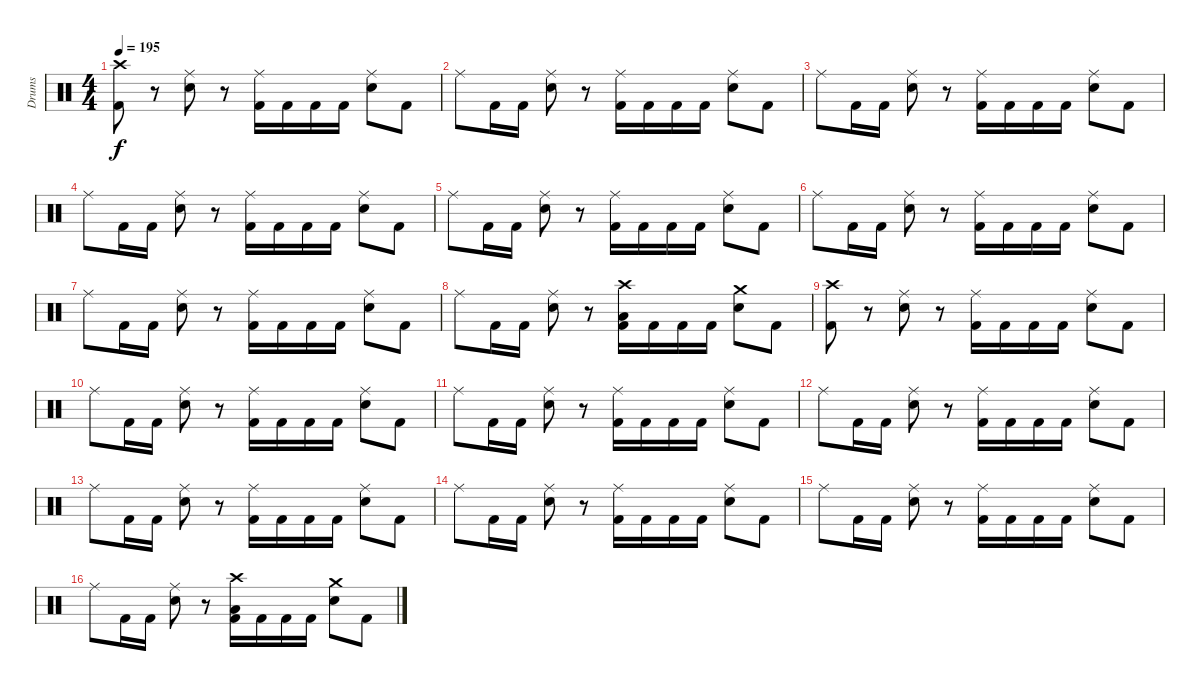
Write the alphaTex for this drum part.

\track ("Drums" "Drums") {instrument percussion}
\staff {score}
\articulation defaults
\ts (4 4)
\section ("" "")
\tempo 195
\clef neutral
\ks c
("Crash high (hit)" "Kick (hit) 2").8{dy f} r.8 ("Ride (middle)" "Snare (hit) 2").8 r.8 ("Ride (middle)" "Kick (hit) 2").16 "Kick (hit) 2".16 "Kick (hit) 2".16 "Kick (hit) 2".16 ("Ride (middle)" "Snare (hit) 2").8 "Kick (hit) 2".8 |
"Ride (middle)".8 "Kick (hit) 2".16 "Kick (hit) 2".16 ("Ride (middle)" "Snare (hit) 2").8 r.8 ("Ride (middle)" "Kick (hit) 2").16 "Kick (hit) 2".16 "Kick (hit) 2".16 "Kick (hit) 2".16 ("Ride (middle)" "Snare (hit) 2").8 "Kick (hit) 2".8 |
"Ride (middle)".8 "Kick (hit) 2".16 "Kick (hit) 2".16 ("Ride (middle)" "Snare (hit) 2").8 r.8 ("Ride (middle)" "Kick (hit) 2").16 "Kick (hit) 2".16 "Kick (hit) 2".16 "Kick (hit) 2".16 ("Ride (middle)" "Snare (hit) 2").8 "Kick (hit) 2".8 |
"Ride (middle)".8 "Kick (hit) 2".16 "Kick (hit) 2".16 ("Ride (middle)" "Snare (hit) 2").8 r.8 ("Ride (middle)" "Kick (hit) 2").16 "Kick (hit) 2".16 "Kick (hit) 2".16 "Kick (hit) 2".16 ("Ride (middle)" "Snare (hit) 2").8 "Kick (hit) 2".8 |
"Ride (middle)".8 "Kick (hit) 2".16 "Kick (hit) 2".16 ("Ride (middle)" "Snare (hit) 2").8 r.8 ("Ride (middle)" "Kick (hit) 2").16 "Kick (hit) 2".16 "Kick (hit) 2".16 "Kick (hit) 2".16 ("Ride (middle)" "Snare (hit) 2").8 "Kick (hit) 2".8 |
"Ride (middle)".8 "Kick (hit) 2".16 "Kick (hit) 2".16 ("Ride (middle)" "Snare (hit) 2").8 r.8 ("Ride (middle)" "Kick (hit) 2").16 "Kick (hit) 2".16 "Kick (hit) 2".16 "Kick (hit) 2".16 ("Ride (middle)" "Snare (hit) 2").8 "Kick (hit) 2".8 |
"Ride (middle)".8 "Kick (hit) 2".16 "Kick (hit) 2".16 ("Ride (middle)" "Snare (hit) 2").8 r.8 ("Ride (middle)" "Kick (hit) 2").16 "Kick (hit) 2".16 "Kick (hit) 2".16 "Kick (hit) 2".16 ("Ride (middle)" "Snare (hit) 2").8 "Kick (hit) 2".8 |
"Ride (middle)".8 "Kick (hit) 2".16 "Kick (hit) 2".16 ("Ride (middle)" "Snare (hit) 2").8 r.8 ("Crash high (hit)" "Low Floor Tom (hit)" "Kick (hit) 2").16 "Kick (hit) 2".16 "Kick (hit) 2".16 "Kick (hit) 2".16 ("Crash medium (hit)" "Snare (hit) 2").8 "Kick (hit) 2".8 |
("Crash high (hit)" "Kick (hit) 2").8 r.8 ("Ride (middle)" "Snare (hit) 2").8 r.8 ("Ride (middle)" "Kick (hit) 2").16 "Kick (hit) 2".16 "Kick (hit) 2".16 "Kick (hit) 2".16 ("Ride (middle)" "Snare (hit) 2").8 "Kick (hit) 2".8 |
"Ride (middle)".8 "Kick (hit) 2".16 "Kick (hit) 2".16 ("Ride (middle)" "Snare (hit) 2").8 r.8 ("Ride (middle)" "Kick (hit) 2").16 "Kick (hit) 2".16 "Kick (hit) 2".16 "Kick (hit) 2".16 ("Ride (middle)" "Snare (hit) 2").8 "Kick (hit) 2".8 |
"Ride (middle)".8 "Kick (hit) 2".16 "Kick (hit) 2".16 ("Ride (middle)" "Snare (hit) 2").8 r.8 ("Ride (middle)" "Kick (hit) 2").16 "Kick (hit) 2".16 "Kick (hit) 2".16 "Kick (hit) 2".16 ("Ride (middle)" "Snare (hit) 2").8 "Kick (hit) 2".8 |
"Ride (middle)".8 "Kick (hit) 2".16 "Kick (hit) 2".16 ("Ride (middle)" "Snare (hit) 2").8 r.8 ("Ride (middle)" "Kick (hit) 2").16 "Kick (hit) 2".16 "Kick (hit) 2".16 "Kick (hit) 2".16 ("Ride (middle)" "Snare (hit) 2").8 "Kick (hit) 2".8 |
"Ride (middle)".8 "Kick (hit) 2".16 "Kick (hit) 2".16 ("Ride (middle)" "Snare (hit) 2").8 r.8 ("Ride (middle)" "Kick (hit) 2").16 "Kick (hit) 2".16 "Kick (hit) 2".16 "Kick (hit) 2".16 ("Ride (middle)" "Snare (hit) 2").8 "Kick (hit) 2".8 |
"Ride (middle)".8 "Kick (hit) 2".16 "Kick (hit) 2".16 ("Ride (middle)" "Snare (hit) 2").8 r.8 ("Ride (middle)" "Kick (hit) 2").16 "Kick (hit) 2".16 "Kick (hit) 2".16 "Kick (hit) 2".16 ("Ride (middle)" "Snare (hit) 2").8 "Kick (hit) 2".8 |
"Ride (middle)".8 "Kick (hit) 2".16 "Kick (hit) 2".16 ("Ride (middle)" "Snare (hit) 2").8 r.8 ("Ride (middle)" "Kick (hit) 2").16 "Kick (hit) 2".16 "Kick (hit) 2".16 "Kick (hit) 2".16 ("Ride (middle)" "Snare (hit) 2").8 "Kick (hit) 2".8 |
"Ride (middle)".8 "Kick (hit) 2".16 "Kick (hit) 2".16 ("Ride (middle)" "Snare (hit) 2").8 r.8 ("Crash high (hit)" "Low Floor Tom (hit)" "Kick (hit) 2").16 "Kick (hit) 2".16 "Kick (hit) 2".16 "Kick (hit) 2".16 ("Crash medium (hit)" "Snare (hit) 2").8 "Kick (hit) 2".8
